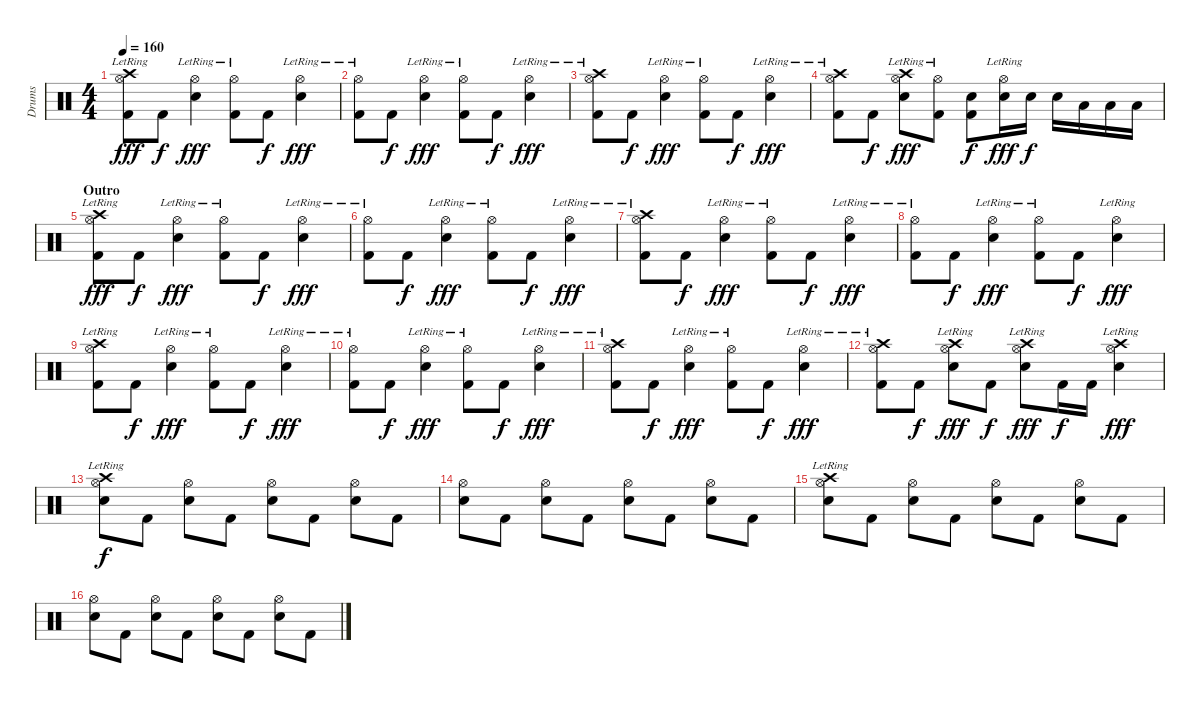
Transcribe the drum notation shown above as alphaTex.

\track ("Drums" "Drums") {instrument percussion}
\staff {score}
\articulation defaults
\ts (4 4)
\tempo 160
\clef neutral
\ks c
("Crash high (hit)" "Hi-Hat (open)"{lr} "Kick (hit) 2").8{dy fff} "Kick (hit) 2".8{dy f} ("Hi-Hat (open)"{lr} "Electric Snare (hit)").4{dy fff} ("Hi-Hat (open)"{lr} "Kick (hit) 2").8 "Kick (hit) 2".8{dy f} ("Hi-Hat (open)"{lr} "Electric Snare (hit)").4{dy fff} |
("Hi-Hat (open)"{lr} "Kick (hit) 2").8 "Kick (hit) 2".8{dy f} ("Hi-Hat (open)"{lr} "Electric Snare (hit)").4{dy fff} ("Hi-Hat (open)"{lr} "Kick (hit) 2").8 "Kick (hit) 2".8{dy f} ("Hi-Hat (open)"{lr} "Electric Snare (hit)").4{dy fff} |
("Crash high (hit)" "Hi-Hat (open)"{lr} "Kick (hit) 2").8 "Kick (hit) 2".8{dy f} ("Hi-Hat (open)"{lr} "Electric Snare (hit)").4{dy fff} ("Hi-Hat (open)"{lr} "Kick (hit) 2").8 "Kick (hit) 2".8{dy f} ("Hi-Hat (open)"{lr} "Electric Snare (hit)").4{dy fff} |
("Crash high (hit)" "Hi-Hat (open)"{lr} "Kick (hit) 2").8 "Kick (hit) 2".8{dy f} ("Crash high (hit)" "Hi-Hat (open)"{lr} "Electric Snare (hit)").8{dy fff} ("Hi-Hat (open)"{lr} "Kick (hit) 2").8 ("Electric Snare (hit)" "Kick (hit) 2").8{dy f} ("Hi-Hat (open)"{lr} "Electric Snare (hit)").16{dy fff} "Electric Snare (hit)".16{dy f} "Electric Snare (hit)".16 "Low Tom (hit)".16 "Low Tom (hit)".16 "Low Tom (hit)".16 |
\section ("" "Outro")
("Crash high (hit)" "Hi-Hat (open)"{lr} "Kick (hit) 2").8{dy fff} "Kick (hit) 2".8{dy f} ("Hi-Hat (open)"{lr} "Electric Snare (hit)").4{dy fff} ("Hi-Hat (open)"{lr} "Kick (hit) 2").8 "Kick (hit) 2".8{dy f} ("Hi-Hat (open)"{lr} "Electric Snare (hit)").4{dy fff} |
("Hi-Hat (open)"{lr} "Kick (hit) 2").8 "Kick (hit) 2".8{dy f} ("Hi-Hat (open)"{lr} "Electric Snare (hit)").4{dy fff} ("Hi-Hat (open)"{lr} "Kick (hit) 2").8 "Kick (hit) 2".8{dy f} ("Hi-Hat (open)"{lr} "Electric Snare (hit)").4{dy fff} |
("Crash high (hit)" "Hi-Hat (open)"{lr} "Kick (hit) 2").8 "Kick (hit) 2".8{dy f} ("Hi-Hat (open)"{lr} "Electric Snare (hit)").4{dy fff} ("Hi-Hat (open)"{lr} "Kick (hit) 2").8 "Kick (hit) 2".8{dy f} ("Hi-Hat (open)"{lr} "Electric Snare (hit)").4{dy fff} |
("Hi-Hat (open)"{lr} "Kick (hit) 2").8 "Kick (hit) 2".8{dy f} ("Hi-Hat (open)"{lr} "Electric Snare (hit)").4{dy fff} ("Hi-Hat (open)"{lr} "Kick (hit) 2").8 "Kick (hit) 2".8{dy f} ("Hi-Hat (open)"{lr} "Electric Snare (hit)").4{dy fff} |
("Crash high (hit)" "Hi-Hat (open)"{lr} "Kick (hit) 2").8 "Kick (hit) 2".8{dy f} ("Hi-Hat (open)"{lr} "Electric Snare (hit)").4{dy fff} ("Hi-Hat (open)"{lr} "Kick (hit) 2").8 "Kick (hit) 2".8{dy f} ("Hi-Hat (open)"{lr} "Electric Snare (hit)").4{dy fff} |
("Hi-Hat (open)"{lr} "Kick (hit) 2").8 "Kick (hit) 2".8{dy f} ("Hi-Hat (open)"{lr} "Electric Snare (hit)").4{dy fff} ("Hi-Hat (open)"{lr} "Kick (hit) 2").8 "Kick (hit) 2".8{dy f} ("Hi-Hat (open)"{lr} "Electric Snare (hit)").4{dy fff} |
("Crash high (hit)" "Hi-Hat (open)"{lr} "Kick (hit) 2").8 "Kick (hit) 2".8{dy f} ("Hi-Hat (open)"{lr} "Electric Snare (hit)").4{dy fff} ("Hi-Hat (open)"{lr} "Kick (hit) 2").8 "Kick (hit) 2".8{dy f} ("Hi-Hat (open)"{lr} "Electric Snare (hit)").4{dy fff} |
("Crash high (hit)"{lr} "Hi-Hat (open)"{lr} "Kick (hit) 2").8 "Kick (hit) 2".8{dy f} ("Crash high (hit)"{lr} "Hi-Hat (open)"{lr} "Electric Snare (hit)").8{dy fff} "Kick (hit) 2".8{dy f} ("Crash high (hit)"{lr} "Hi-Hat (open)" "Electric Snare (hit)").8{dy fff} "Kick (hit) 2".16{dy f} "Kick (hit) 2".16 ("Crash high (hit)"{lr} "Hi-Hat (open)" "Electric Snare (hit)").4{dy fff} |
("Crash high (hit)"{lr} "Hi-Hat (open)" "Electric Snare (hit)").8{dy f} "Kick (hit) 2".8 ("Hi-Hat (open)" "Electric Snare (hit)").8 "Kick (hit) 2".8 ("Hi-Hat (open)" "Electric Snare (hit)").8 "Kick (hit) 2".8 ("Hi-Hat (open)" "Electric Snare (hit)").8 "Kick (hit) 2".8 |
("Hi-Hat (open)" "Electric Snare (hit)").8 "Kick (hit) 2".8 ("Hi-Hat (open)" "Electric Snare (hit)").8 "Kick (hit) 2".8 ("Hi-Hat (open)" "Electric Snare (hit)").8 "Kick (hit) 2".8 ("Hi-Hat (open)" "Electric Snare (hit)").8 "Kick (hit) 2".8 |
("Crash high (hit)"{lr} "Hi-Hat (open)" "Electric Snare (hit)").8 "Kick (hit) 2".8 ("Hi-Hat (open)" "Electric Snare (hit)").8 "Kick (hit) 2".8 ("Hi-Hat (open)" "Electric Snare (hit)").8 "Kick (hit) 2".8 ("Hi-Hat (open)" "Electric Snare (hit)").8 "Kick (hit) 2".8 |
("Hi-Hat (open)" "Electric Snare (hit)").8 "Kick (hit) 2".8 ("Hi-Hat (open)" "Electric Snare (hit)").8 "Kick (hit) 2".8 ("Hi-Hat (open)" "Electric Snare (hit)").8 "Kick (hit) 2".8 ("Hi-Hat (open)" "Electric Snare (hit)").8 "Kick (hit) 2".8
